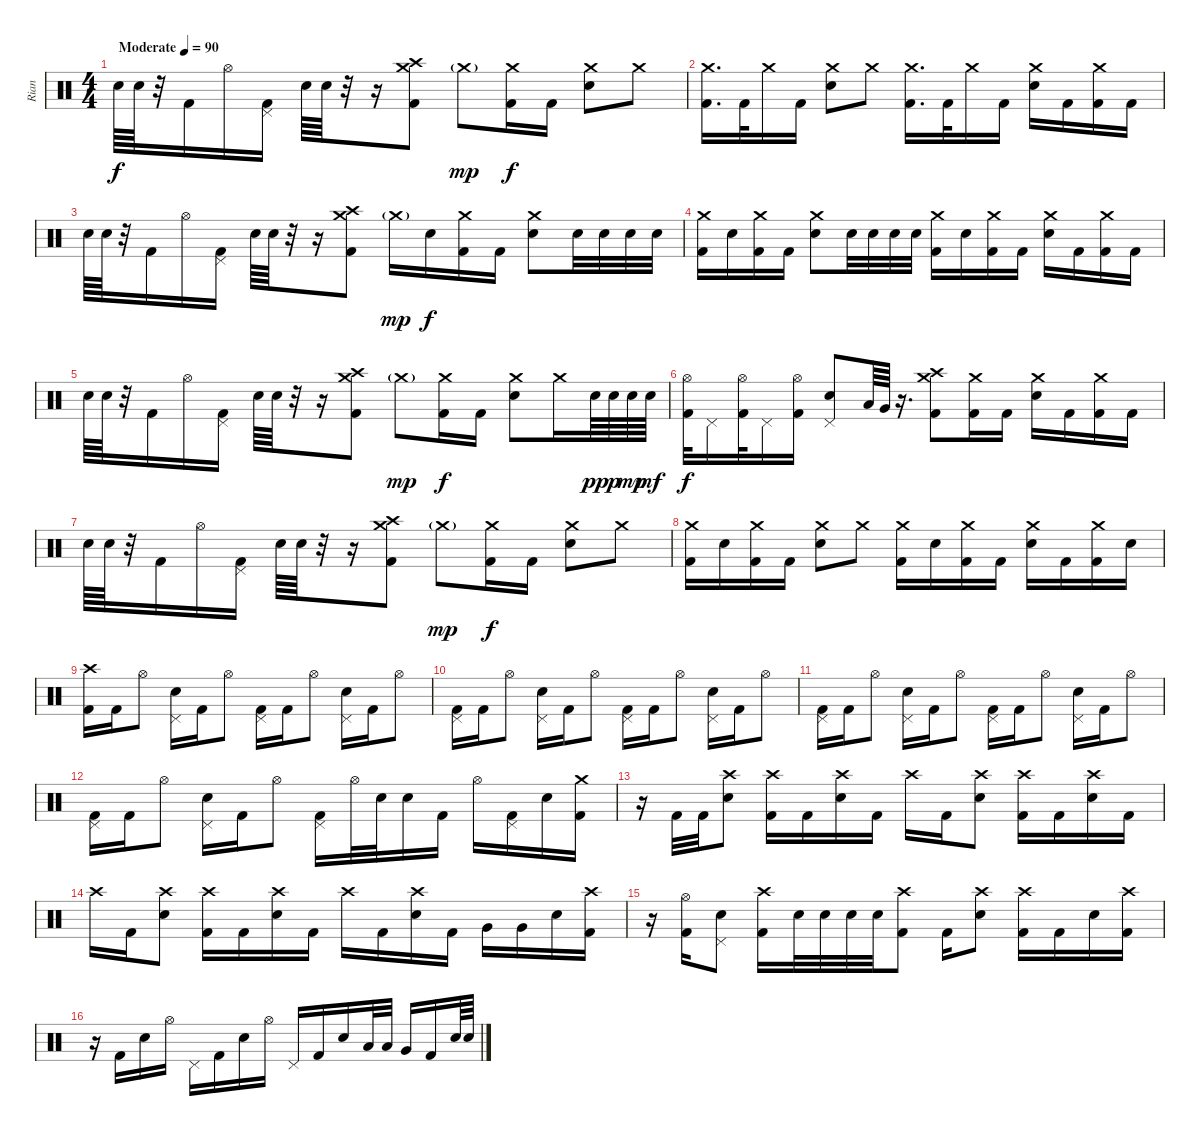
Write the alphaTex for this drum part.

\track ("Rian" "Rian") {instrument percussion bank 34}
\staff {score}
\articulation defaults
\ts (4 4)
\tempo (90 "Moderate")
\clef neutral
\ks c "Electric Snare (hit)".64{dy f} "Electric Snare (hit)".64
r.32 "Kick (hit) 2".16 "Hi-Hat (open)".16 ("Pedal Hi-Hat (hit)" "Kick (hit) 2").16 "Electric Snare (hit)".64 "Electric Snare (hit)".64 r.32 r.16 ("Crash high (hit)" "Crash medium (hit)" "Kick (hit) 2").8 "Crash medium (hit)"{g}.8{dy mp} ("Crash medium (hit)" "Kick (hit) 2").16{dy f} "Kick (hit) 2".16 ("Crash medium (hit)" "Electric Snare (hit)").8 "Crash medium (hit)".8 |
("Crash medium (hit)" "Kick (hit) 2").16{d} "Kick (hit) 2".32 "Crash medium (hit)".16 "Kick (hit) 2".16 ("Crash medium (hit)" "Electric Snare (hit)").8 "Crash medium (hit)".8 ("Crash medium (hit)" "Kick (hit) 2").16{d} "Kick (hit) 2".32 "Crash medium (hit)".16 "Kick (hit) 2".16 ("Crash medium (hit)" "Electric Snare (hit)").16 "Kick (hit) 2".16 ("Crash medium (hit)" "Kick (hit) 2").16 "Kick (hit) 2".16 |
"Electric Snare (hit)".64 "Electric Snare (hit)".64 r.32 "Kick (hit) 2".16 "Hi-Hat (open)".16 ("Pedal Hi-Hat (hit)" "Kick (hit) 2").16 "Electric Snare (hit)".64 "Electric Snare (hit)".64 r.32 r.16 ("Crash high (hit)" "Crash medium (hit)" "Kick (hit) 2").8 "Crash medium (hit)"{g}.16{dy mp} "Electric Snare (hit)".16{dy f} ("Crash medium (hit)" "Kick (hit) 2").16 "Kick (hit) 2".16 ("Crash medium (hit)" "Electric Snare (hit)").8 "Electric Snare (hit)".32 "Electric Snare (hit)".32 "Electric Snare (hit)".32 "Electric Snare (hit)".32 |
("Crash medium (hit)" "Kick (hit) 2").16 "Electric Snare (hit)".16 ("Crash medium (hit)" "Kick (hit) 2").16 "Kick (hit) 2".16 ("Crash medium (hit)" "Electric Snare (hit)").8 "Electric Snare (hit)".32 "Electric Snare (hit)".32 "Electric Snare (hit)".32 "Electric Snare (hit)".32 ("Crash medium (hit)" "Kick (hit) 2").16 "Electric Snare (hit)".16 ("Crash medium (hit)" "Kick (hit) 2").16 "Kick (hit) 2".16 ("Crash medium (hit)" "Electric Snare (hit)").16 "Kick (hit) 2".16 ("Crash medium (hit)" "Kick (hit) 2").16 "Kick (hit) 2".16 |
"Electric Snare (hit)".64 "Electric Snare (hit)".64 r.32 "Kick (hit) 2".16 "Hi-Hat (open)".16 ("Pedal Hi-Hat (hit)" "Kick (hit) 2").16 "Electric Snare (hit)".64 "Electric Snare (hit)".64 r.32 r.16 ("Crash high (hit)" "Crash medium (hit)" "Kick (hit) 2").8 "Crash medium (hit)"{g}.8{dy mp} ("Crash medium (hit)" "Kick (hit) 2").16{dy f} "Kick (hit) 2".16 ("Crash medium (hit)" "Electric Snare (hit)").8 "Crash medium (hit)".16 "Electric Snare (hit)".64{dy pp} "Electric Snare (hit)".64{dy p} "Electric Snare (hit)".64{dy mp} "Electric Snare (hit)".64{dy mf} |
("Hi-Hat (open)" "Kick (hit) 2").32{dy f} "Pedal Hi-Hat (hit)".16 ("Hi-Hat (open)" "Kick (hit) 2").32 "Pedal Hi-Hat (hit)".16 ("Hi-Hat (open)" "Kick (hit) 2").16 ("Pedal Hi-Hat (hit)" "Electric Snare (hit)").8 "Low Tom (hit)".64 "Very Low Tom (hit)".64 r.16{d} ("Crash high (hit)" "Crash medium (hit)" "Kick (hit) 2").8 ("Crash medium (hit)" "Kick (hit) 2").16 "Kick (hit) 2".16 ("Crash medium (hit)" "Electric Snare (hit)").16 "Kick (hit) 2".16 ("Crash medium (hit)" "Kick (hit) 2").16 "Kick (hit) 2".16 |
"Electric Snare (hit)".64 "Electric Snare (hit)".64 r.32 "Kick (hit) 2".16 "Hi-Hat (open)".16 ("Pedal Hi-Hat (hit)" "Kick (hit) 2").16 "Electric Snare (hit)".64 "Electric Snare (hit)".64 r.32 r.16 ("Crash high (hit)" "Crash medium (hit)" "Kick (hit) 2").8 "Crash medium (hit)"{g}.8{dy mp} ("Crash medium (hit)" "Kick (hit) 2").16{dy f} "Kick (hit) 2".16 ("Crash medium (hit)" "Electric Snare (hit)").8 "Crash medium (hit)".8 |
("Crash medium (hit)" "Kick (hit) 2").16 "Electric Snare (hit)".16 ("Crash medium (hit)" "Kick (hit) 2").16 "Kick (hit) 2".16 ("Crash medium (hit)" "Electric Snare (hit)").8 "Crash medium (hit)".8 ("Crash medium (hit)" "Kick (hit) 2").16 "Electric Snare (hit)".16 ("Crash medium (hit)" "Kick (hit) 2").16 "Kick (hit) 2".16 ("Crash medium (hit)" "Electric Snare (hit)").16 "Kick (hit) 2".16 ("Crash medium (hit)" "Kick (hit) 2").16 "Electric Snare (hit)".16 |
("Crash high (hit)" "Kick (hit) 2").16 "Kick (hit) 2".16 "Hi-Hat (open)".8 ("Pedal Hi-Hat (hit)" "Electric Snare (hit)").16 "Kick (hit) 2".16 "Hi-Hat (open)".8 ("Pedal Hi-Hat (hit)" "Kick (hit) 2").16 "Kick (hit) 2".16 "Hi-Hat (open)".8 ("Pedal Hi-Hat (hit)" "Electric Snare (hit)").16 "Kick (hit) 2".16 "Hi-Hat (open)".8 |
("Pedal Hi-Hat (hit)" "Kick (hit) 2").16 "Kick (hit) 2".16 "Hi-Hat (open)".8 ("Pedal Hi-Hat (hit)" "Electric Snare (hit)").16 "Kick (hit) 2".16 "Hi-Hat (open)".8 ("Pedal Hi-Hat (hit)" "Kick (hit) 2").16 "Kick (hit) 2".16 "Hi-Hat (open)".8 ("Pedal Hi-Hat (hit)" "Electric Snare (hit)").16 "Kick (hit) 2".16 "Hi-Hat (open)".8 |
("Pedal Hi-Hat (hit)" "Kick (hit) 2").16 "Kick (hit) 2".16 "Hi-Hat (open)".8 ("Pedal Hi-Hat (hit)" "Electric Snare (hit)").16 "Kick (hit) 2".16 "Hi-Hat (open)".8 ("Pedal Hi-Hat (hit)" "Kick (hit) 2").16 "Kick (hit) 2".16 "Hi-Hat (open)".8 ("Pedal Hi-Hat (hit)" "Electric Snare (hit)").16 "Kick (hit) 2".16 "Hi-Hat (open)".8 |
("Pedal Hi-Hat (hit)" "Kick (hit) 2").16 "Kick (hit) 2".16 "Hi-Hat (open)".8 ("Pedal Hi-Hat (hit)" "Electric Snare (hit)").16 "Kick (hit) 2".16 "Hi-Hat (open)".8 ("Pedal Hi-Hat (hit)" "Kick (hit) 2").16 "Hi-Hat (open)".32 "Electric Snare (hit)".32 "Electric Snare (hit)".16 "Kick (hit) 2".16 "Hi-Hat (open)".16 ("Pedal Hi-Hat (hit)" "Kick (hit) 2").16 "Electric Snare (hit)".16 ("Crash medium (hit)" "Kick (hit) 2").16 |
r.16 "Kick (hit) 2".32 "Kick (hit) 2".32 ("Crash high (hit)" "Electric Snare (hit)").8 ("Crash high (hit)" "Kick (hit) 2").16 "Kick (hit) 2".16 ("Crash high (hit)" "Electric Snare (hit)").16 "Kick (hit) 2".16 "Crash high (hit)".16 "Kick (hit) 2".16 ("Crash high (hit)" "Electric Snare (hit)").8 ("Crash high (hit)" "Kick (hit) 2").16 "Kick (hit) 2".16 ("Crash high (hit)" "Electric Snare (hit)").16 "Kick (hit) 2".16 |
"Crash high (hit)".16 "Kick (hit) 2".16 ("Crash high (hit)" "Electric Snare (hit)").8 ("Crash high (hit)" "Kick (hit) 2").16 "Kick (hit) 2".16 ("Crash high (hit)" "Electric Snare (hit)").16 "Kick (hit) 2".16 "Crash high (hit)".16 "Kick (hit) 2".16 ("Crash high (hit)" "Electric Snare (hit)").16 "Kick (hit) 2".16 "Very Low Tom (hit)".16 "Very Low Tom (hit)".16 "Electric Snare (hit)".16 ("Crash high (hit)" "Kick (hit) 2").16 |
r.16 ("Hi-Hat (open)" "Kick (hit) 2").16 ("Pedal Hi-Hat (hit)" "Electric Snare (hit)").8 ("Crash high (hit)" "Kick (hit) 2").16 "Electric Snare (hit)".32 "Electric Snare (hit)".32 "Electric Snare (hit)".32 "Electric Snare (hit)".32 ("Crash high (hit)" "Kick (hit) 2").8 "Kick (hit) 2".16 ("Crash high (hit)" "Electric Snare (hit)").8 ("Crash high (hit)" "Kick (hit) 2").16 "Kick (hit) 2".16 "Electric Snare (hit)".16 ("Crash high (hit)" "Kick (hit) 2").16 |
r.16 "Kick (hit) 2".16 "Electric Snare (hit)".16 "Hi-Hat (open)".16 "Pedal Hi-Hat (hit)".16 "Kick (hit) 2".16 "Electric Snare (hit)".16 "Hi-Hat (open)".16 "Pedal Hi-Hat (hit)".16 "Kick (hit) 2".16 "Electric Snare (hit)".16 "Low Tom (hit)".32 "Low Tom (hit)".32 "Very Low Tom (hit)".16 "Kick (hit) 2".16 "Electric Snare (hit)".64 "Electric Snare (hit)".64
